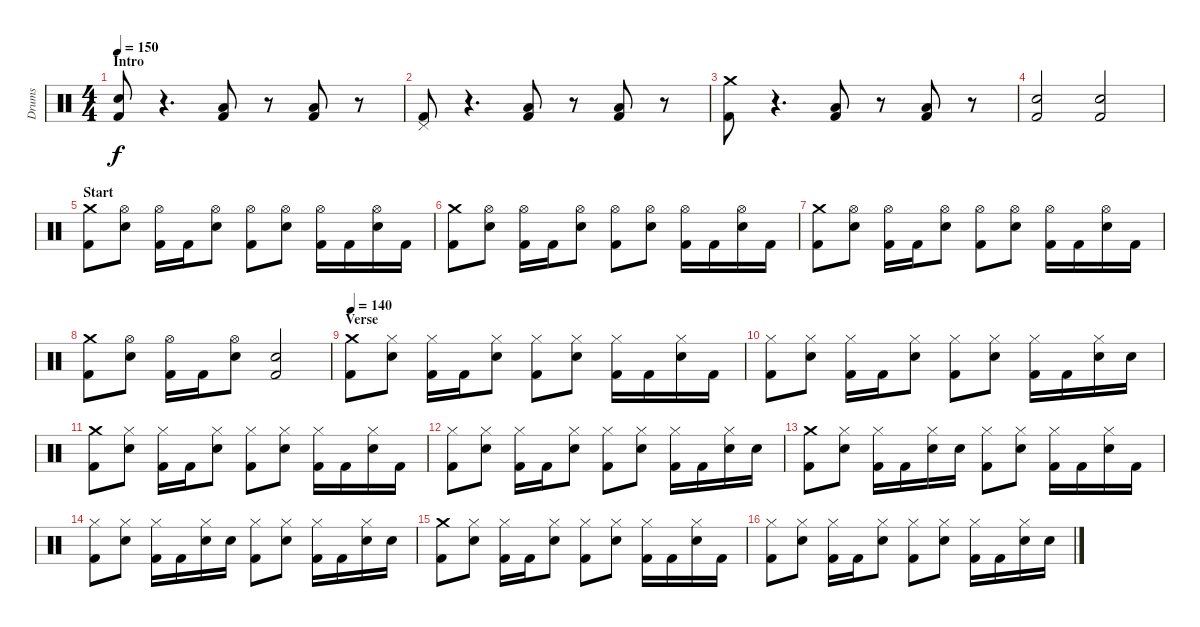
\track ("Drums" "Drums") {instrument percussion}
\staff {score}
\articulation defaults
\ts (4 4)
\section ("" "Intro")
\tempo 150
\clef neutral
\ks c
("Electric Snare (hit)" "Kick (hit) 2").8{dy f} r.4{d} ("Low Floor Tom (hit)" "Kick (hit) 2").8 r.8 ("Low Floor Tom (hit)" "Kick (hit) 2").8 r.8 |
("Pedal Hi-Hat (hit)" "Kick (hit) 2").8 r.4{d} ("Low Floor Tom (hit)" "Kick (hit) 2").8 r.8 ("Low Floor Tom (hit)" "Kick (hit) 2").8 r.8 |
("Crash medium (hit)" "Kick (hit) 2").8 r.4{d} ("Low Floor Tom (hit)" "Kick (hit) 2").8 r.8 ("Low Floor Tom (hit)" "Kick (hit) 2").8 r.8 |
("Electric Snare (hit)" "Kick (hit) 2").2 ("Electric Snare (hit)" "Kick (hit) 2").2 |
\section ("" "Start")
("Crash medium (hit)" "Kick (hit) 2").8 ("Hi-Hat (open)" "Electric Snare (hit)").8 ("Hi-Hat (open)" "Kick (hit) 2").16 "Kick (hit) 2".16 ("Hi-Hat (open)" "Electric Snare (hit)").8 ("Hi-Hat (open)" "Kick (hit) 2").8 ("Hi-Hat (open)" "Electric Snare (hit)").8 ("Hi-Hat (open)" "Kick (hit) 2").16 "Kick (hit) 2".16 ("Hi-Hat (open)" "Electric Snare (hit)").16 "Kick (hit) 2".16 |
("Crash medium (hit)" "Kick (hit) 2").8 ("Hi-Hat (open)" "Electric Snare (hit)").8 ("Hi-Hat (open)" "Kick (hit) 2").16 "Kick (hit) 2".16 ("Hi-Hat (open)" "Electric Snare (hit)").8 ("Hi-Hat (open)" "Kick (hit) 2").8 ("Hi-Hat (open)" "Electric Snare (hit)").8 ("Hi-Hat (open)" "Kick (hit) 2").16 "Kick (hit) 2".16 ("Hi-Hat (open)" "Electric Snare (hit)").16 "Kick (hit) 2".16 |
("Crash medium (hit)" "Kick (hit) 2").8 ("Hi-Hat (open)" "Electric Snare (hit)").8 ("Hi-Hat (open)" "Kick (hit) 2").16 "Kick (hit) 2".16 ("Hi-Hat (open)" "Electric Snare (hit)").8 ("Hi-Hat (open)" "Kick (hit) 2").8 ("Hi-Hat (open)" "Electric Snare (hit)").8 ("Hi-Hat (open)" "Kick (hit) 2").16 "Kick (hit) 2".16 ("Hi-Hat (open)" "Electric Snare (hit)").16 "Kick (hit) 2".16 |
("Crash medium (hit)" "Kick (hit) 2").8 ("Hi-Hat (open)" "Electric Snare (hit)").8 ("Hi-Hat (open)" "Kick (hit) 2").16 "Kick (hit) 2".16 ("Hi-Hat (open)" "Electric Snare (hit)").8 ("Electric Snare (hit)" "Kick (hit) 2").2 |
\section ("" "Verse")
\tempo 140
("Crash medium (hit)" "Kick (hit) 2").8 ("Hi-Hat (closed)" "Electric Snare (hit)").8 ("Hi-Hat (closed)" "Kick (hit) 2").16 "Kick (hit) 2".16 ("Hi-Hat (closed)" "Electric Snare (hit)").8 ("Hi-Hat (closed)" "Kick (hit) 2").8 ("Hi-Hat (closed)" "Electric Snare (hit)").8 ("Hi-Hat (closed)" "Kick (hit) 2").16 "Kick (hit) 2".16 ("Hi-Hat (closed)" "Electric Snare (hit)").16 "Kick (hit) 2".16 |
("Hi-Hat (closed)" "Kick (hit) 2").8 ("Hi-Hat (closed)" "Electric Snare (hit)").8 ("Hi-Hat (closed)" "Kick (hit) 2").16 "Kick (hit) 2".16 ("Hi-Hat (closed)" "Electric Snare (hit)").8 ("Hi-Hat (closed)" "Kick (hit) 2").8 ("Hi-Hat (closed)" "Electric Snare (hit)").8 ("Hi-Hat (closed)" "Kick (hit) 2").16 "Kick (hit) 2".16 ("Hi-Hat (closed)" "Electric Snare (hit)").16 "Electric Snare (hit)".16 |
("Crash medium (hit)" "Kick (hit) 2").8 ("Hi-Hat (closed)" "Electric Snare (hit)").8 ("Hi-Hat (closed)" "Kick (hit) 2").16 "Kick (hit) 2".16 ("Hi-Hat (closed)" "Electric Snare (hit)").8 ("Hi-Hat (closed)" "Kick (hit) 2").8 ("Hi-Hat (closed)" "Electric Snare (hit)").8 ("Hi-Hat (closed)" "Kick (hit) 2").16 "Kick (hit) 2".16 ("Hi-Hat (closed)" "Electric Snare (hit)").16 "Kick (hit) 2".16 |
("Hi-Hat (closed)" "Kick (hit) 2").8 ("Hi-Hat (closed)" "Electric Snare (hit)").8 ("Hi-Hat (closed)" "Kick (hit) 2").16 "Kick (hit) 2".16 ("Hi-Hat (closed)" "Electric Snare (hit)").8 ("Hi-Hat (closed)" "Kick (hit) 2").8 ("Hi-Hat (closed)" "Electric Snare (hit)").8 ("Hi-Hat (closed)" "Kick (hit) 2").16 "Kick (hit) 2".16 ("Hi-Hat (closed)" "Electric Snare (hit)").16 "Electric Snare (hit)".16 |
("Crash medium (hit)" "Kick (hit) 2").8 ("Hi-Hat (closed)" "Electric Snare (hit)").8 ("Hi-Hat (closed)" "Kick (hit) 2").16 "Kick (hit) 2".16 ("Hi-Hat (closed)" "Electric Snare (hit)").16 "Electric Snare (hit)".16 ("Hi-Hat (closed)" "Kick (hit) 2").8 ("Hi-Hat (closed)" "Electric Snare (hit)").8 ("Hi-Hat (closed)" "Kick (hit) 2").16 "Kick (hit) 2".16 ("Hi-Hat (closed)" "Electric Snare (hit)").16 "Kick (hit) 2".16 |
("Hi-Hat (closed)" "Kick (hit) 2").8 ("Hi-Hat (closed)" "Electric Snare (hit)").8 ("Hi-Hat (closed)" "Kick (hit) 2").16 "Kick (hit) 2".16 ("Hi-Hat (closed)" "Electric Snare (hit)").16 "Electric Snare (hit)".16 ("Hi-Hat (closed)" "Kick (hit) 2").8 ("Hi-Hat (closed)" "Electric Snare (hit)").8 ("Hi-Hat (closed)" "Kick (hit) 2").16 "Kick (hit) 2".16 ("Hi-Hat (closed)" "Electric Snare (hit)").16 "Electric Snare (hit)".16 |
("Crash medium (hit)" "Kick (hit) 2").8 ("Hi-Hat (closed)" "Electric Snare (hit)").8 ("Hi-Hat (closed)" "Kick (hit) 2").16 "Kick (hit) 2".16 ("Hi-Hat (closed)" "Electric Snare (hit)").8 ("Hi-Hat (closed)" "Kick (hit) 2").8 ("Hi-Hat (closed)" "Electric Snare (hit)").8 ("Hi-Hat (closed)" "Kick (hit) 2").16 "Kick (hit) 2".16 ("Hi-Hat (closed)" "Electric Snare (hit)").16 "Kick (hit) 2".16 |
("Hi-Hat (closed)" "Kick (hit) 2").8 ("Hi-Hat (closed)" "Electric Snare (hit)").8 ("Hi-Hat (closed)" "Kick (hit) 2").16 "Kick (hit) 2".16 ("Hi-Hat (closed)" "Electric Snare (hit)").8 ("Hi-Hat (closed)" "Kick (hit) 2").8 ("Hi-Hat (closed)" "Electric Snare (hit)").8 ("Hi-Hat (closed)" "Kick (hit) 2").16 "Kick (hit) 2".16 ("Hi-Hat (closed)" "Electric Snare (hit)").16 "Electric Snare (hit)".16
